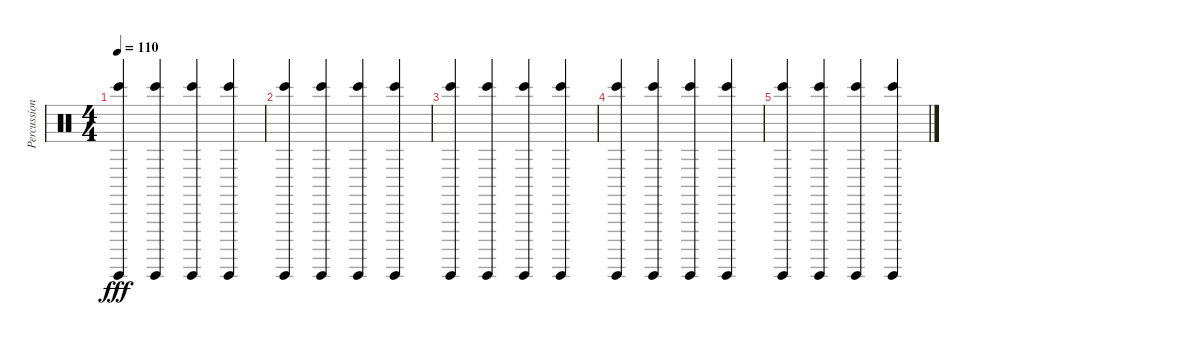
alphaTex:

\track ("Percussion" "Percussion") {instrument percussion}
\staff {score}
\articulation defaults
\ts (4 4)
\tempo 110
\clef neutral
\ks c
("Bongo High (hit)" "Guiro (hit)").4{dy fff} ("Bongo High (hit)" "Guiro (hit)").4 ("Bongo High (hit)" "Guiro (hit)").4 ("Bongo High (hit)" "Guiro (hit)").4 |
("Bongo High (hit)" "Guiro (hit)").4 ("Bongo High (hit)" "Guiro (hit)").4 ("Bongo High (hit)" "Guiro (hit)").4 ("Bongo High (hit)" "Guiro (hit)").4 |
("Bongo High (hit)" "Guiro (hit)").4 ("Bongo High (hit)" "Guiro (hit)").4 ("Bongo High (hit)" "Guiro (hit)").4 ("Bongo High (hit)" "Guiro (hit)").4 |
("Bongo High (hit)" "Guiro (hit)").4 ("Bongo High (hit)" "Guiro (hit)").4 ("Bongo High (hit)" "Guiro (hit)").4 ("Bongo High (hit)" "Guiro (hit)").4 |
("Bongo High (hit)" "Guiro (hit)").4 ("Bongo High (hit)" "Guiro (hit)").4 ("Bongo High (hit)" "Guiro (hit)").4 ("Bongo High (hit)" "Guiro (hit)").4
